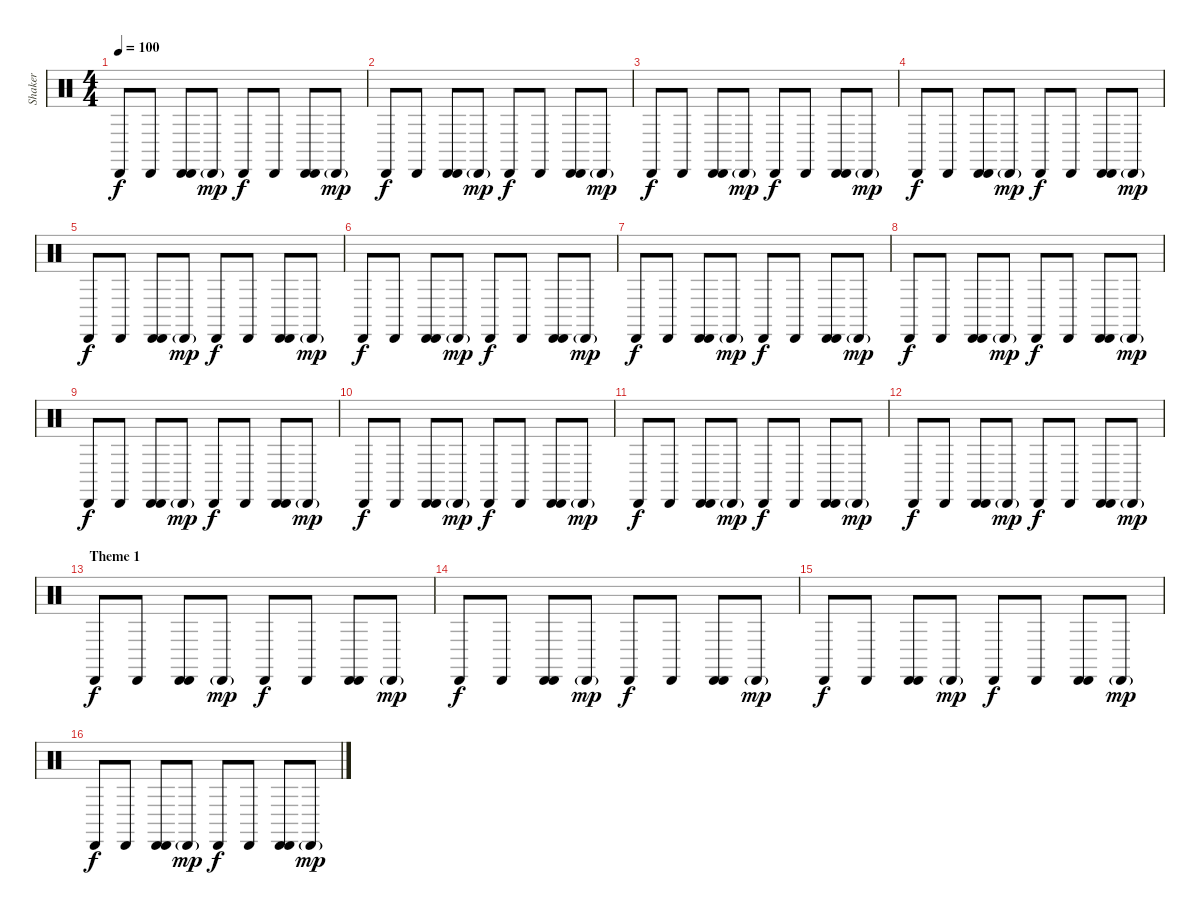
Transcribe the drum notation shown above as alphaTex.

\track ("Shaker" "Shaker") {instrument percussion}
\staff {score}
\articulation defaults
\ts (4 4)
\tempo 100
\clef neutral
\ks c "Cabasa (hit)".8{dy f} "Cabasa (hit)".8
("Cabasa (hit)" "Cabasa (hit)").8 "Cabasa (hit)"{g}.8{dy mp} "Cabasa (hit)".8{dy f} "Cabasa (hit)".8 ("Cabasa (hit)" "Cabasa (hit)").8 "Cabasa (hit)"{g}.8{dy mp} |
"Cabasa (hit)".8{dy f} "Cabasa (hit)".8 ("Cabasa (hit)" "Cabasa (hit)").8 "Cabasa (hit)"{g}.8{dy mp} "Cabasa (hit)".8{dy f} "Cabasa (hit)".8 ("Cabasa (hit)" "Cabasa (hit)").8 "Cabasa (hit)"{g}.8{dy mp} |
"Cabasa (hit)".8{dy f} "Cabasa (hit)".8 ("Cabasa (hit)" "Cabasa (hit)").8 "Cabasa (hit)"{g}.8{dy mp} "Cabasa (hit)".8{dy f} "Cabasa (hit)".8 ("Cabasa (hit)" "Cabasa (hit)").8 "Cabasa (hit)"{g}.8{dy mp} |
"Cabasa (hit)".8{dy f} "Cabasa (hit)".8 ("Cabasa (hit)" "Cabasa (hit)").8 "Cabasa (hit)"{g}.8{dy mp} "Cabasa (hit)".8{dy f} "Cabasa (hit)".8 ("Cabasa (hit)" "Cabasa (hit)").8 "Cabasa (hit)"{g}.8{dy mp} |
"Cabasa (hit)".8{dy f} "Cabasa (hit)".8 ("Cabasa (hit)" "Cabasa (hit)").8 "Cabasa (hit)"{g}.8{dy mp} "Cabasa (hit)".8{dy f} "Cabasa (hit)".8 ("Cabasa (hit)" "Cabasa (hit)").8 "Cabasa (hit)"{g}.8{dy mp} |
"Cabasa (hit)".8{dy f} "Cabasa (hit)".8 ("Cabasa (hit)" "Cabasa (hit)").8 "Cabasa (hit)"{g}.8{dy mp} "Cabasa (hit)".8{dy f} "Cabasa (hit)".8 ("Cabasa (hit)" "Cabasa (hit)").8 "Cabasa (hit)"{g}.8{dy mp} |
"Cabasa (hit)".8{dy f} "Cabasa (hit)".8 ("Cabasa (hit)" "Cabasa (hit)").8 "Cabasa (hit)"{g}.8{dy mp} "Cabasa (hit)".8{dy f} "Cabasa (hit)".8 ("Cabasa (hit)" "Cabasa (hit)").8 "Cabasa (hit)"{g}.8{dy mp} |
"Cabasa (hit)".8{dy f} "Cabasa (hit)".8 ("Cabasa (hit)" "Cabasa (hit)").8 "Cabasa (hit)"{g}.8{dy mp} "Cabasa (hit)".8{dy f} "Cabasa (hit)".8 ("Cabasa (hit)" "Cabasa (hit)").8 "Cabasa (hit)"{g}.8{dy mp} |
"Cabasa (hit)".8{dy f} "Cabasa (hit)".8 ("Cabasa (hit)" "Cabasa (hit)").8 "Cabasa (hit)"{g}.8{dy mp} "Cabasa (hit)".8{dy f} "Cabasa (hit)".8 ("Cabasa (hit)" "Cabasa (hit)").8 "Cabasa (hit)"{g}.8{dy mp} |
"Cabasa (hit)".8{dy f} "Cabasa (hit)".8 ("Cabasa (hit)" "Cabasa (hit)").8 "Cabasa (hit)"{g}.8{dy mp} "Cabasa (hit)".8{dy f} "Cabasa (hit)".8 ("Cabasa (hit)" "Cabasa (hit)").8 "Cabasa (hit)"{g}.8{dy mp} |
"Cabasa (hit)".8{dy f} "Cabasa (hit)".8 ("Cabasa (hit)" "Cabasa (hit)").8 "Cabasa (hit)"{g}.8{dy mp} "Cabasa (hit)".8{dy f} "Cabasa (hit)".8 ("Cabasa (hit)" "Cabasa (hit)").8 "Cabasa (hit)"{g}.8{dy mp} |
"Cabasa (hit)".8{dy f} "Cabasa (hit)".8 ("Cabasa (hit)" "Cabasa (hit)").8 "Cabasa (hit)"{g}.8{dy mp} "Cabasa (hit)".8{dy f} "Cabasa (hit)".8 ("Cabasa (hit)" "Cabasa (hit)").8 "Cabasa (hit)"{g}.8{dy mp} |
\section ("" "Theme 1")
"Cabasa (hit)".8{dy f} "Cabasa (hit)".8 ("Cabasa (hit)" "Cabasa (hit)").8 "Cabasa (hit)"{g}.8{dy mp} "Cabasa (hit)".8{dy f} "Cabasa (hit)".8 ("Cabasa (hit)" "Cabasa (hit)").8 "Cabasa (hit)"{g}.8{dy mp} |
"Cabasa (hit)".8{dy f} "Cabasa (hit)".8 ("Cabasa (hit)" "Cabasa (hit)").8 "Cabasa (hit)"{g}.8{dy mp} "Cabasa (hit)".8{dy f} "Cabasa (hit)".8 ("Cabasa (hit)" "Cabasa (hit)").8 "Cabasa (hit)"{g}.8{dy mp} |
"Cabasa (hit)".8{dy f} "Cabasa (hit)".8 ("Cabasa (hit)" "Cabasa (hit)").8 "Cabasa (hit)"{g}.8{dy mp} "Cabasa (hit)".8{dy f} "Cabasa (hit)".8 ("Cabasa (hit)" "Cabasa (hit)").8 "Cabasa (hit)"{g}.8{dy mp} |
"Cabasa (hit)".8{dy f} "Cabasa (hit)".8 ("Cabasa (hit)" "Cabasa (hit)").8 "Cabasa (hit)"{g}.8{dy mp} "Cabasa (hit)".8{dy f} "Cabasa (hit)".8 ("Cabasa (hit)" "Cabasa (hit)").8 "Cabasa (hit)"{g}.8{dy mp}
